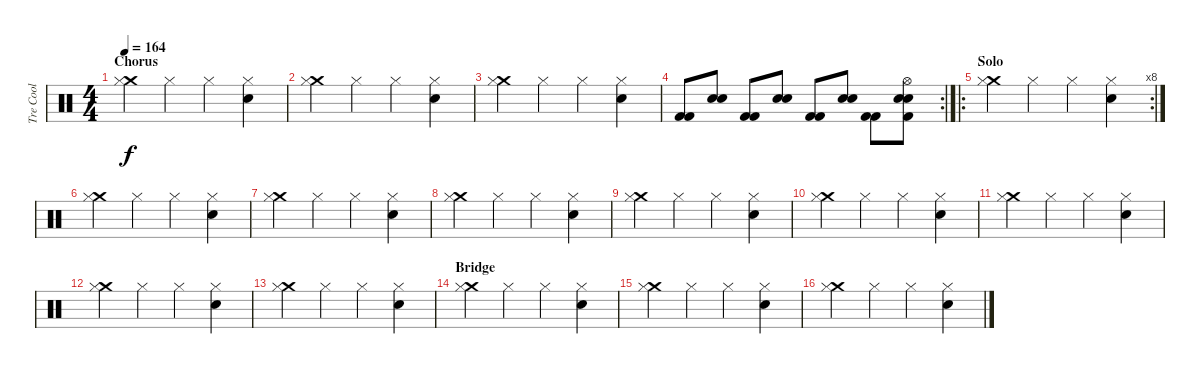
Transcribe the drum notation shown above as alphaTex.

\track ("Tre Cool" "Tre Cool") {instrument percussion}
\staff {score}
\articulation defaults
\ts (4 4)
\section ("" "Chorus")
\tempo 164
\clef neutral
\ks c
("Crash medium (hit)" "Hi-Hat (closed)").4{dy f} "Hi-Hat (closed)".4 "Hi-Hat (closed)".4 ("Snare (hit) 2" "Hi-Hat (closed)").4 |
("Crash medium (hit)" "Hi-Hat (closed)").4 "Hi-Hat (closed)".4 "Hi-Hat (closed)".4 ("Snare (hit) 2" "Hi-Hat (closed)").4 |
("Crash medium (hit)" "Hi-Hat (closed)").4 "Hi-Hat (closed)".4 "Hi-Hat (closed)".4 ("Snare (hit) 2" "Hi-Hat (closed)").4 |
\rc 2
("Kick (hit) 2" "Kick (hit) 2").8 ("Snare (hit) 2" "Snare (hit) 2").8 ("Kick (hit) 2" "Kick (hit) 2").8 ("Snare (hit) 2" "Snare (hit) 2").8 ("Kick (hit) 2" "Kick (hit) 2").8 ("Snare (hit) 2" "Snare (hit) 2").8 ("Kick (hit) 2" "Kick (hit) 2").8 ("Hi-Hat (open)" "Snare (hit) 2" "Snare (hit) 2" "Kick (hit) 2").8 |
\ro
\rc 8
\section ("" "Solo")
("Crash medium (hit)" "Hi-Hat (closed)").4 "Hi-Hat (closed)".4 "Hi-Hat (closed)".4 ("Snare (hit) 2" "Hi-Hat (closed)").4 |
("Crash medium (hit)" "Hi-Hat (closed)").4 "Hi-Hat (closed)".4 "Hi-Hat (closed)".4 ("Snare (hit) 2" "Hi-Hat (closed)").4 |
("Crash medium (hit)" "Hi-Hat (closed)").4 "Hi-Hat (closed)".4 "Hi-Hat (closed)".4 ("Snare (hit) 2" "Hi-Hat (closed)").4 |
("Crash medium (hit)" "Hi-Hat (closed)").4 "Hi-Hat (closed)".4 "Hi-Hat (closed)".4 ("Snare (hit) 2" "Hi-Hat (closed)").4 |
("Crash medium (hit)" "Hi-Hat (closed)").4 "Hi-Hat (closed)".4 "Hi-Hat (closed)".4 ("Snare (hit) 2" "Hi-Hat (closed)").4 |
("Crash medium (hit)" "Hi-Hat (closed)").4 "Hi-Hat (closed)".4 "Hi-Hat (closed)".4 ("Snare (hit) 2" "Hi-Hat (closed)").4 |
("Crash medium (hit)" "Hi-Hat (closed)").4 "Hi-Hat (closed)".4 "Hi-Hat (closed)".4 ("Snare (hit) 2" "Hi-Hat (closed)").4 |
("Crash medium (hit)" "Hi-Hat (closed)").4 "Hi-Hat (closed)".4 "Hi-Hat (closed)".4 ("Snare (hit) 2" "Hi-Hat (closed)").4 |
("Crash medium (hit)" "Hi-Hat (closed)").4 "Hi-Hat (closed)".4 "Hi-Hat (closed)".4 ("Snare (hit) 2" "Hi-Hat (closed)").4 |
\section ("" "Bridge")
("Crash medium (hit)" "Hi-Hat (closed)").4 "Hi-Hat (closed)".4 "Hi-Hat (closed)".4 ("Snare (hit) 2" "Hi-Hat (closed)").4 |
("Crash medium (hit)" "Hi-Hat (closed)").4 "Hi-Hat (closed)".4 "Hi-Hat (closed)".4 ("Snare (hit) 2" "Hi-Hat (closed)").4 |
("Crash medium (hit)" "Hi-Hat (closed)").4 "Hi-Hat (closed)".4 "Hi-Hat (closed)".4 ("Snare (hit) 2" "Hi-Hat (closed)").4
